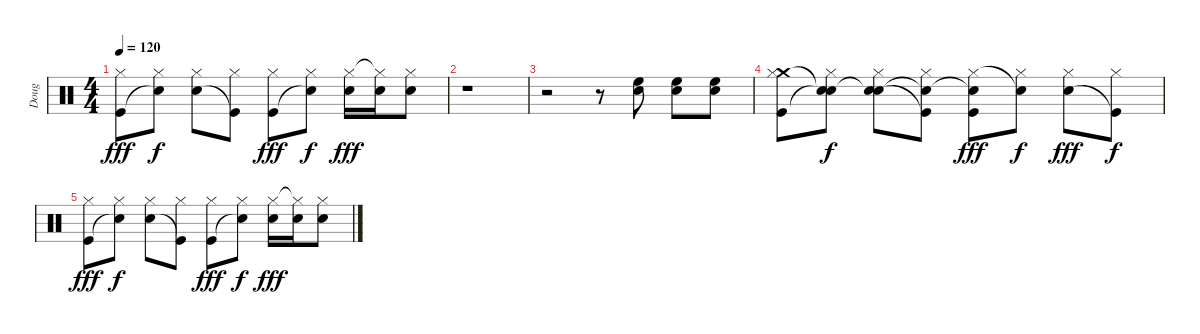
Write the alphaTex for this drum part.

\track ("Doug" "Doug") {instrument percussion}
\staff {score}
\articulation defaults
\ts (4 4)
\tempo 120
\clef neutral
\ks c
("Hi-Hat (closed)" "Kick (hit)").8{dy fff} ("Hi-Hat (closed)" "Snare (hit)"{t}).8{dy f} ("Hi-Hat (closed)" "Snare (hit) 2").8 ("Hi-Hat (closed)" "Kick (hit)"{t}).8 ("Hi-Hat (closed)" "Kick (hit)").8{dy fff} ("Hi-Hat (closed)" "Snare (hit)"{t}).8{dy f} ("Hi-Hat (closed)" "Snare (hit) 2").16{dy fff} ("Hi-Hat (closed)"{t} "Snare (hit) 2").16 ("Hi-Hat (closed)" "Snare (hit) 2").8 |
r.1 |
r.2 r.8 ("High Floor Tom (hit)" "Snare (hit) 2").8 ("High Floor Tom (hit)" "Snare (hit) 2").8 ("High Floor Tom (hit)" "Snare (hit) 2").8 |
("Crash medium (hit)" "Hi-Hat (closed)" "Kick (hit)").8 ("Snare (hit)"{t} "Hi-Hat (closed)" "Snare (hit)"{t}).8{dy f} ("Snare (hit)"{t} "Hi-Hat (closed)" "Snare (hit) 2").8 ("Snare (hit)"{t} "Hi-Hat (closed)" "Kick (hit)"{t}).8 ("Snare (hit)"{t} "Hi-Hat (closed)" "Kick (hit)").8{dy fff} ("Hi-Hat (closed)" "Snare (hit)"{t}).8{dy f} ("Hi-Hat (closed)" "Snare (hit) 2").8{dy fff} ("Hi-Hat (closed)" "Kick (hit)"{t}).8{dy f} |
("Hi-Hat (closed)" "Kick (hit)").8{dy fff} ("Hi-Hat (closed)" "Snare (hit)"{t}).8{dy f} ("Hi-Hat (closed)" "Snare (hit) 2").8 ("Hi-Hat (closed)" "Kick (hit)"{t}).8 ("Hi-Hat (closed)" "Kick (hit)").8{dy fff} ("Hi-Hat (closed)" "Snare (hit)"{t}).8{dy f} ("Hi-Hat (closed)" "Snare (hit) 2").16{dy fff} ("Hi-Hat (closed)"{t} "Snare (hit) 2").16 ("Hi-Hat (closed)" "Snare (hit) 2").8
